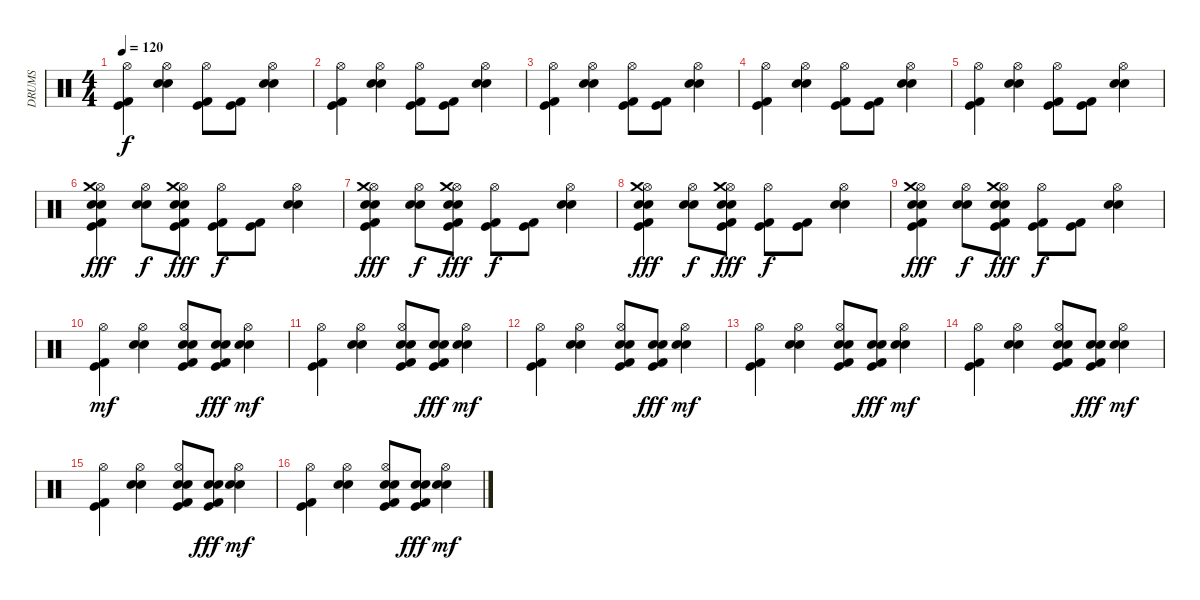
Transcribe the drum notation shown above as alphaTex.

\track ("DRUMS" "DRUMS") {instrument percussion}
\staff {score}
\articulation defaults
\ts (4 4)
\tempo 120
\clef neutral
\ks c
("Kick (hit)" "Kick (hit) 2" "Hi-Hat (open)").4{dy f} ("Snare (hit) 2" "Electric Snare (hit)" "Hi-Hat (open)").4 ("Kick (hit)" "Kick (hit) 2" "Hi-Hat (open)").8 ("Kick (hit)" "Kick (hit) 2").8 ("Snare (hit) 2" "Electric Snare (hit)" "Hi-Hat (open)").4 |
("Kick (hit)" "Kick (hit) 2" "Hi-Hat (open)").4 ("Snare (hit) 2" "Electric Snare (hit)" "Hi-Hat (open)").4 ("Kick (hit)" "Kick (hit) 2" "Hi-Hat (open)").8 ("Kick (hit)" "Kick (hit) 2").8 ("Snare (hit) 2" "Electric Snare (hit)" "Hi-Hat (open)").4 |
("Kick (hit)" "Kick (hit) 2" "Hi-Hat (open)").4 ("Snare (hit) 2" "Electric Snare (hit)" "Hi-Hat (open)").4 ("Kick (hit)" "Kick (hit) 2" "Hi-Hat (open)").8 ("Kick (hit)" "Kick (hit) 2").8 ("Snare (hit) 2" "Electric Snare (hit)" "Hi-Hat (open)").4 |
("Kick (hit)" "Kick (hit) 2" "Hi-Hat (open)").4 ("Snare (hit) 2" "Electric Snare (hit)" "Hi-Hat (open)").4 ("Kick (hit)" "Kick (hit) 2" "Hi-Hat (open)").8 ("Kick (hit)" "Kick (hit) 2").8 ("Snare (hit) 2" "Electric Snare (hit)" "Hi-Hat (open)").4 |
("Kick (hit)" "Kick (hit) 2" "Hi-Hat (open)").4 ("Snare (hit) 2" "Electric Snare (hit)" "Hi-Hat (open)").4 ("Kick (hit)" "Kick (hit) 2" "Hi-Hat (open)").8 ("Kick (hit)" "Kick (hit) 2").8 ("Snare (hit) 2" "Electric Snare (hit)" "Hi-Hat (open)").4 |
("Kick (hit)" "Kick (hit) 2" "Snare (hit) 2" "Electric Snare (hit)" "Hi-Hat (open)" "Crash medium (hit)").4{dy fff} ("Snare (hit) 2" "Electric Snare (hit)" "Hi-Hat (open)").8{dy f} ("Kick (hit)" "Kick (hit) 2" "Snare (hit) 2" "Electric Snare (hit)" "Hi-Hat (open)" "Crash medium (hit)").8{dy fff} ("Kick (hit)" "Kick (hit) 2" "Hi-Hat (open)").8{dy f} ("Kick (hit)" "Kick (hit) 2").8 ("Snare (hit) 2" "Electric Snare (hit)" "Hi-Hat (open)").4 |
("Kick (hit)" "Kick (hit) 2" "Snare (hit) 2" "Electric Snare (hit)" "Hi-Hat (open)" "Crash medium (hit)").4{dy fff} ("Snare (hit) 2" "Electric Snare (hit)" "Hi-Hat (open)").8{dy f} ("Kick (hit)" "Kick (hit) 2" "Snare (hit) 2" "Electric Snare (hit)" "Hi-Hat (open)" "Crash medium (hit)").8{dy fff} ("Kick (hit)" "Kick (hit) 2" "Hi-Hat (open)").8{dy f} ("Kick (hit)" "Kick (hit) 2").8 ("Snare (hit) 2" "Electric Snare (hit)" "Hi-Hat (open)").4 |
("Kick (hit)" "Kick (hit) 2" "Snare (hit) 2" "Electric Snare (hit)" "Hi-Hat (open)" "Crash medium (hit)").4{dy fff} ("Snare (hit) 2" "Electric Snare (hit)" "Hi-Hat (open)").8{dy f} ("Kick (hit)" "Kick (hit) 2" "Snare (hit) 2" "Electric Snare (hit)" "Hi-Hat (open)" "Crash medium (hit)").8{dy fff} ("Kick (hit)" "Kick (hit) 2" "Hi-Hat (open)").8{dy f} ("Kick (hit)" "Kick (hit) 2").8 ("Snare (hit) 2" "Electric Snare (hit)" "Hi-Hat (open)").4 |
("Kick (hit)" "Kick (hit) 2" "Snare (hit) 2" "Electric Snare (hit)" "Hi-Hat (open)" "Crash medium (hit)").4{dy fff} ("Snare (hit) 2" "Electric Snare (hit)" "Hi-Hat (open)").8{dy f} ("Kick (hit)" "Kick (hit) 2" "Snare (hit) 2" "Electric Snare (hit)" "Hi-Hat (open)" "Crash medium (hit)").8{dy fff} ("Kick (hit)" "Kick (hit) 2" "Hi-Hat (open)").8{dy f} ("Kick (hit)" "Kick (hit) 2").8 ("Snare (hit) 2" "Electric Snare (hit)" "Hi-Hat (open)").4 |
("Kick (hit)" "Kick (hit) 2" "Hi-Hat (open)").4{dy mf} ("Snare (hit) 2" "Electric Snare (hit)" "Hi-Hat (open)").4 ("Kick (hit)" "Kick (hit) 2" "Snare (hit) 2" "Electric Snare (hit)" "Hi-Hat (open)").8 ("Kick (hit)" "Kick (hit) 2" "Snare (hit) 2" "Electric Snare (hit)").8{dy fff} ("Snare (hit) 2" "Electric Snare (hit)" "Hi-Hat (open)").4{dy mf} |
("Kick (hit)" "Kick (hit) 2" "Hi-Hat (open)").4 ("Snare (hit) 2" "Electric Snare (hit)" "Hi-Hat (open)").4 ("Kick (hit)" "Kick (hit) 2" "Snare (hit) 2" "Electric Snare (hit)" "Hi-Hat (open)").8 ("Kick (hit)" "Kick (hit) 2" "Snare (hit) 2" "Electric Snare (hit)").8{dy fff} ("Snare (hit) 2" "Electric Snare (hit)" "Hi-Hat (open)").4{dy mf} |
("Kick (hit)" "Kick (hit) 2" "Hi-Hat (open)").4 ("Snare (hit) 2" "Electric Snare (hit)" "Hi-Hat (open)").4 ("Kick (hit)" "Kick (hit) 2" "Snare (hit) 2" "Electric Snare (hit)" "Hi-Hat (open)").8 ("Kick (hit)" "Kick (hit) 2" "Snare (hit) 2" "Electric Snare (hit)").8{dy fff} ("Snare (hit) 2" "Electric Snare (hit)" "Hi-Hat (open)").4{dy mf} |
("Kick (hit)" "Kick (hit) 2" "Hi-Hat (open)").4 ("Snare (hit) 2" "Electric Snare (hit)" "Hi-Hat (open)").4 ("Kick (hit)" "Kick (hit) 2" "Snare (hit) 2" "Electric Snare (hit)" "Hi-Hat (open)").8 ("Kick (hit)" "Kick (hit) 2" "Snare (hit) 2" "Electric Snare (hit)").8{dy fff} ("Snare (hit) 2" "Electric Snare (hit)" "Hi-Hat (open)").4{dy mf} |
("Kick (hit)" "Kick (hit) 2" "Hi-Hat (open)").4 ("Snare (hit) 2" "Electric Snare (hit)" "Hi-Hat (open)").4 ("Kick (hit)" "Kick (hit) 2" "Snare (hit) 2" "Electric Snare (hit)" "Hi-Hat (open)").8 ("Kick (hit)" "Kick (hit) 2" "Snare (hit) 2" "Electric Snare (hit)").8{dy fff} ("Snare (hit) 2" "Electric Snare (hit)" "Hi-Hat (open)").4{dy mf} |
("Kick (hit)" "Kick (hit) 2" "Hi-Hat (open)").4 ("Snare (hit) 2" "Electric Snare (hit)" "Hi-Hat (open)").4 ("Kick (hit)" "Kick (hit) 2" "Snare (hit) 2" "Electric Snare (hit)" "Hi-Hat (open)").8 ("Kick (hit)" "Kick (hit) 2" "Snare (hit) 2" "Electric Snare (hit)").8{dy fff} ("Snare (hit) 2" "Electric Snare (hit)" "Hi-Hat (open)").4{dy mf} |
("Kick (hit)" "Kick (hit) 2" "Hi-Hat (open)").4 ("Snare (hit) 2" "Electric Snare (hit)" "Hi-Hat (open)").4 ("Kick (hit)" "Kick (hit) 2" "Snare (hit) 2" "Electric Snare (hit)" "Hi-Hat (open)").8 ("Kick (hit)" "Kick (hit) 2" "Snare (hit) 2" "Electric Snare (hit)").8{dy fff} ("Snare (hit) 2" "Electric Snare (hit)" "Hi-Hat (open)").4{dy mf}
